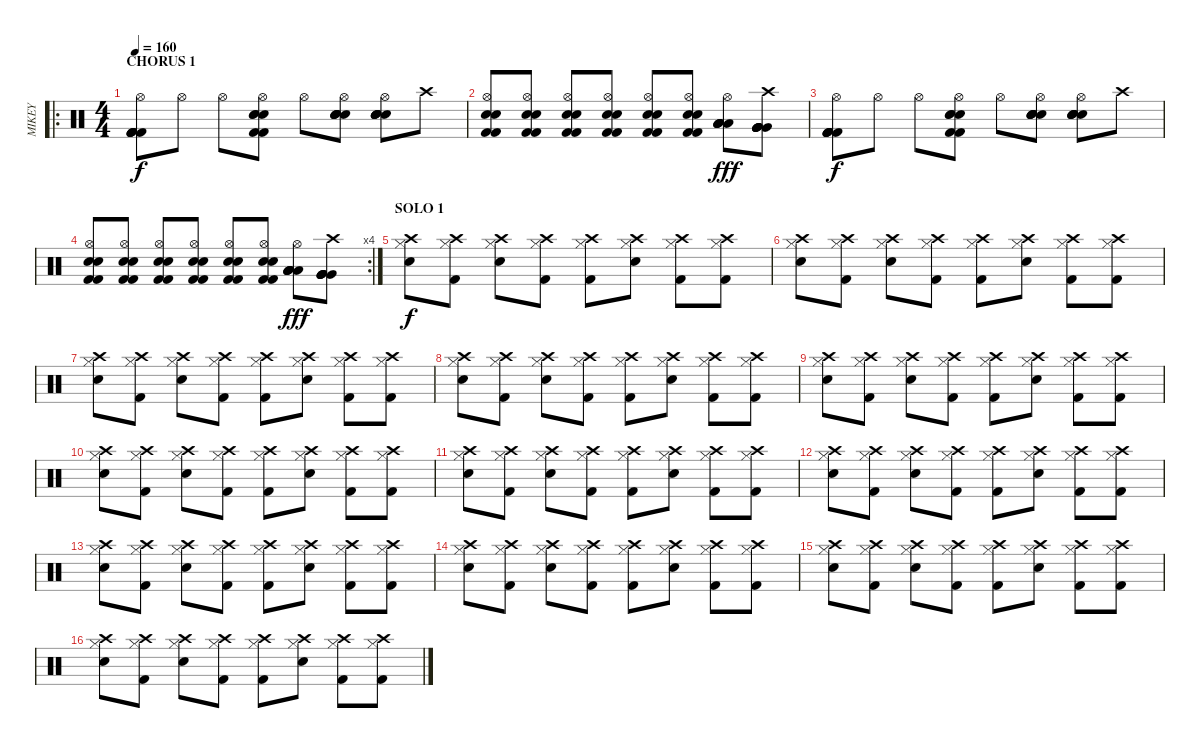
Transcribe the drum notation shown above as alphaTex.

\track ("MIKEY" "MIKEY") {instrument percussion}
\staff {score}
\articulation defaults
\ro
\ts (4 4)
\section ("" "CHORUS 1")
\tempo 160
\clef neutral
\ks c
("Kick (hit) 2" "Kick (hit) 2" "Kick (hit) 2" "Kick (hit) 2" "Kick (hit) 2" "Hi-Hat (open)").8{dy f} "Hi-Hat (open)".8 "Hi-Hat (open)".8 ("Snare (hit) 2" "Kick (hit) 2" "Snare (hit) 2" "Kick (hit) 2" "Snare (hit) 2" "Hi-Hat (open)").8 "Hi-Hat (open)".8 ("Snare (hit) 2" "Snare (hit) 2" "Snare (hit) 2" "Snare (hit) 2" "Snare (hit) 2" "Hi-Hat (open)").8 ("Snare (hit) 2" "Snare (hit) 2" "Snare (hit) 2" "Snare (hit) 2" "Snare (hit) 2" "Hi-Hat (open)").8 "Crash high (hit)".8 |
("Electric Snare (hit)" "Kick (hit) 2" "Kick (hit) 2" "Electric Snare (hit)" "Hi-Hat (open)").8 ("Electric Snare (hit)" "Kick (hit) 2" "Kick (hit) 2" "Electric Snare (hit)" "Hi-Hat (open)").8 ("Electric Snare (hit)" "Kick (hit) 2" "Kick (hit) 2" "Electric Snare (hit)" "Hi-Hat (open)").8 ("Electric Snare (hit)" "Kick (hit) 2" "Kick (hit) 2" "Electric Snare (hit)" "Hi-Hat (open)").8 ("Electric Snare (hit)" "Kick (hit) 2" "Kick (hit) 2" "Electric Snare (hit)" "Hi-Hat (open)").8 ("Electric Snare (hit)" "Kick (hit) 2" "Kick (hit) 2" "Electric Snare (hit)" "Hi-Hat (open)").8 ("Low Floor Tom (hit)" "Low Floor Tom (hit)" "Low Floor Tom (hit)" "Low Floor Tom (hit)" "Low Floor Tom (hit)" "Hi-Hat (open)").8{dy fff} ("Very Low Tom (hit)" "Very Low Tom (hit)" "Very Low Tom (hit)" "Very Low Tom (hit)" "Very Low Tom (hit)" "Crash high (hit)").8 |
("Kick (hit) 2" "Kick (hit) 2" "Kick (hit) 2" "Kick (hit) 2" "Kick (hit) 2" "Hi-Hat (open)").8{dy f} "Hi-Hat (open)".8 "Hi-Hat (open)".8 ("Snare (hit) 2" "Kick (hit) 2" "Snare (hit) 2" "Kick (hit) 2" "Snare (hit) 2" "Hi-Hat (open)").8 "Hi-Hat (open)".8 ("Snare (hit) 2" "Snare (hit) 2" "Snare (hit) 2" "Snare (hit) 2" "Snare (hit) 2" "Hi-Hat (open)").8 ("Snare (hit) 2" "Snare (hit) 2" "Snare (hit) 2" "Snare (hit) 2" "Snare (hit) 2" "Hi-Hat (open)").8 "Crash high (hit)".8 |
\rc 4
("Electric Snare (hit)" "Kick (hit) 2" "Kick (hit) 2" "Electric Snare (hit)" "Hi-Hat (open)").8 ("Electric Snare (hit)" "Kick (hit) 2" "Kick (hit) 2" "Electric Snare (hit)" "Hi-Hat (open)").8 ("Electric Snare (hit)" "Kick (hit) 2" "Kick (hit) 2" "Electric Snare (hit)" "Hi-Hat (open)").8 ("Electric Snare (hit)" "Kick (hit) 2" "Kick (hit) 2" "Electric Snare (hit)" "Hi-Hat (open)").8 ("Electric Snare (hit)" "Kick (hit) 2" "Kick (hit) 2" "Electric Snare (hit)" "Hi-Hat (open)").8 ("Electric Snare (hit)" "Kick (hit) 2" "Kick (hit) 2" "Electric Snare (hit)" "Hi-Hat (open)").8 ("Low Floor Tom (hit)" "Low Floor Tom (hit)" "Low Floor Tom (hit)" "Low Floor Tom (hit)" "Low Floor Tom (hit)" "Hi-Hat (open)").8{dy fff} ("Very Low Tom (hit)" "Very Low Tom (hit)" "Very Low Tom (hit)" "Very Low Tom (hit)" "Very Low Tom (hit)" "Crash high (hit)").8 |
\section ("" "SOLO 1")
("Hi-Hat (closed)" "Crash high (hit)" "Electric Snare (hit)").8{dy f} ("Hi-Hat (closed)" "Crash high (hit)" "Kick (hit) 2").8 ("Hi-Hat (closed)" "Crash high (hit)" "Electric Snare (hit)").8 ("Hi-Hat (closed)" "Crash high (hit)" "Kick (hit) 2").8 ("Hi-Hat (closed)" "Crash high (hit)" "Kick (hit) 2").8 ("Hi-Hat (closed)" "Crash high (hit)" "Electric Snare (hit)").8 ("Hi-Hat (closed)" "Crash high (hit)" "Kick (hit) 2").8 ("Hi-Hat (closed)" "Crash high (hit)" "Kick (hit) 2").8 |
("Hi-Hat (closed)" "Crash high (hit)" "Electric Snare (hit)").8 ("Hi-Hat (closed)" "Crash high (hit)" "Kick (hit) 2").8 ("Hi-Hat (closed)" "Crash high (hit)" "Electric Snare (hit)").8 ("Hi-Hat (closed)" "Crash high (hit)" "Kick (hit) 2").8 ("Hi-Hat (closed)" "Crash high (hit)" "Kick (hit) 2").8 ("Hi-Hat (closed)" "Crash high (hit)" "Electric Snare (hit)").8 ("Hi-Hat (closed)" "Crash high (hit)" "Kick (hit) 2").8 ("Hi-Hat (closed)" "Crash high (hit)" "Kick (hit) 2").8 |
("Hi-Hat (closed)" "Crash high (hit)" "Electric Snare (hit)").8 ("Hi-Hat (closed)" "Crash high (hit)" "Kick (hit) 2").8 ("Hi-Hat (closed)" "Crash high (hit)" "Electric Snare (hit)").8 ("Hi-Hat (closed)" "Crash high (hit)" "Kick (hit) 2").8 ("Hi-Hat (closed)" "Crash high (hit)" "Kick (hit) 2").8 ("Hi-Hat (closed)" "Crash high (hit)" "Electric Snare (hit)").8 ("Hi-Hat (closed)" "Crash high (hit)" "Kick (hit) 2").8 ("Hi-Hat (closed)" "Crash high (hit)" "Kick (hit) 2").8 |
("Hi-Hat (closed)" "Crash high (hit)" "Electric Snare (hit)").8 ("Hi-Hat (closed)" "Crash high (hit)" "Kick (hit) 2").8 ("Hi-Hat (closed)" "Crash high (hit)" "Electric Snare (hit)").8 ("Hi-Hat (closed)" "Crash high (hit)" "Kick (hit) 2").8 ("Hi-Hat (closed)" "Crash high (hit)" "Kick (hit) 2").8 ("Hi-Hat (closed)" "Crash high (hit)" "Electric Snare (hit)").8 ("Hi-Hat (closed)" "Crash high (hit)" "Kick (hit) 2").8 ("Hi-Hat (closed)" "Crash high (hit)" "Kick (hit) 2").8 |
("Hi-Hat (closed)" "Crash high (hit)" "Electric Snare (hit)").8 ("Hi-Hat (closed)" "Crash high (hit)" "Kick (hit) 2").8 ("Hi-Hat (closed)" "Crash high (hit)" "Electric Snare (hit)").8 ("Hi-Hat (closed)" "Crash high (hit)" "Kick (hit) 2").8 ("Hi-Hat (closed)" "Crash high (hit)" "Kick (hit) 2").8 ("Hi-Hat (closed)" "Crash high (hit)" "Electric Snare (hit)").8 ("Hi-Hat (closed)" "Crash high (hit)" "Kick (hit) 2").8 ("Hi-Hat (closed)" "Crash high (hit)" "Kick (hit) 2").8 |
("Hi-Hat (closed)" "Crash high (hit)" "Electric Snare (hit)").8 ("Hi-Hat (closed)" "Crash high (hit)" "Kick (hit) 2").8 ("Hi-Hat (closed)" "Crash high (hit)" "Electric Snare (hit)").8 ("Hi-Hat (closed)" "Crash high (hit)" "Kick (hit) 2").8 ("Hi-Hat (closed)" "Crash high (hit)" "Kick (hit) 2").8 ("Hi-Hat (closed)" "Crash high (hit)" "Electric Snare (hit)").8 ("Hi-Hat (closed)" "Crash high (hit)" "Kick (hit) 2").8 ("Hi-Hat (closed)" "Crash high (hit)" "Kick (hit) 2").8 |
("Hi-Hat (closed)" "Crash high (hit)" "Electric Snare (hit)").8 ("Hi-Hat (closed)" "Crash high (hit)" "Kick (hit) 2").8 ("Hi-Hat (closed)" "Crash high (hit)" "Electric Snare (hit)").8 ("Hi-Hat (closed)" "Crash high (hit)" "Kick (hit) 2").8 ("Hi-Hat (closed)" "Crash high (hit)" "Kick (hit) 2").8 ("Hi-Hat (closed)" "Crash high (hit)" "Electric Snare (hit)").8 ("Hi-Hat (closed)" "Crash high (hit)" "Kick (hit) 2").8 ("Hi-Hat (closed)" "Crash high (hit)" "Kick (hit) 2").8 |
("Hi-Hat (closed)" "Crash high (hit)" "Electric Snare (hit)").8 ("Hi-Hat (closed)" "Crash high (hit)" "Kick (hit) 2").8 ("Hi-Hat (closed)" "Crash high (hit)" "Electric Snare (hit)").8 ("Hi-Hat (closed)" "Crash high (hit)" "Kick (hit) 2").8 ("Hi-Hat (closed)" "Crash high (hit)" "Kick (hit) 2").8 ("Hi-Hat (closed)" "Crash high (hit)" "Electric Snare (hit)").8 ("Hi-Hat (closed)" "Crash high (hit)" "Kick (hit) 2").8 ("Hi-Hat (closed)" "Crash high (hit)" "Kick (hit) 2").8 |
("Hi-Hat (closed)" "Crash high (hit)" "Electric Snare (hit)").8 ("Hi-Hat (closed)" "Crash high (hit)" "Kick (hit) 2").8 ("Hi-Hat (closed)" "Crash high (hit)" "Electric Snare (hit)").8 ("Hi-Hat (closed)" "Crash high (hit)" "Kick (hit) 2").8 ("Hi-Hat (closed)" "Crash high (hit)" "Kick (hit) 2").8 ("Hi-Hat (closed)" "Crash high (hit)" "Electric Snare (hit)").8 ("Hi-Hat (closed)" "Crash high (hit)" "Kick (hit) 2").8 ("Hi-Hat (closed)" "Crash high (hit)" "Kick (hit) 2").8 |
("Hi-Hat (closed)" "Crash high (hit)" "Electric Snare (hit)").8 ("Hi-Hat (closed)" "Crash high (hit)" "Kick (hit) 2").8 ("Hi-Hat (closed)" "Crash high (hit)" "Electric Snare (hit)").8 ("Hi-Hat (closed)" "Crash high (hit)" "Kick (hit) 2").8 ("Hi-Hat (closed)" "Crash high (hit)" "Kick (hit) 2").8 ("Hi-Hat (closed)" "Crash high (hit)" "Electric Snare (hit)").8 ("Hi-Hat (closed)" "Crash high (hit)" "Kick (hit) 2").8 ("Hi-Hat (closed)" "Crash high (hit)" "Kick (hit) 2").8 |
("Hi-Hat (closed)" "Crash high (hit)" "Electric Snare (hit)").8 ("Hi-Hat (closed)" "Crash high (hit)" "Kick (hit) 2").8 ("Hi-Hat (closed)" "Crash high (hit)" "Electric Snare (hit)").8 ("Hi-Hat (closed)" "Crash high (hit)" "Kick (hit) 2").8 ("Hi-Hat (closed)" "Crash high (hit)" "Kick (hit) 2").8 ("Hi-Hat (closed)" "Crash high (hit)" "Electric Snare (hit)").8 ("Hi-Hat (closed)" "Crash high (hit)" "Kick (hit) 2").8 ("Hi-Hat (closed)" "Crash high (hit)" "Kick (hit) 2").8 |
("Hi-Hat (closed)" "Crash high (hit)" "Electric Snare (hit)").8 ("Hi-Hat (closed)" "Crash high (hit)" "Kick (hit) 2").8 ("Hi-Hat (closed)" "Crash high (hit)" "Electric Snare (hit)").8 ("Hi-Hat (closed)" "Crash high (hit)" "Kick (hit) 2").8 ("Hi-Hat (closed)" "Crash high (hit)" "Kick (hit) 2").8 ("Hi-Hat (closed)" "Crash high (hit)" "Electric Snare (hit)").8 ("Hi-Hat (closed)" "Crash high (hit)" "Kick (hit) 2").8 ("Hi-Hat (closed)" "Crash high (hit)" "Kick (hit) 2").8
